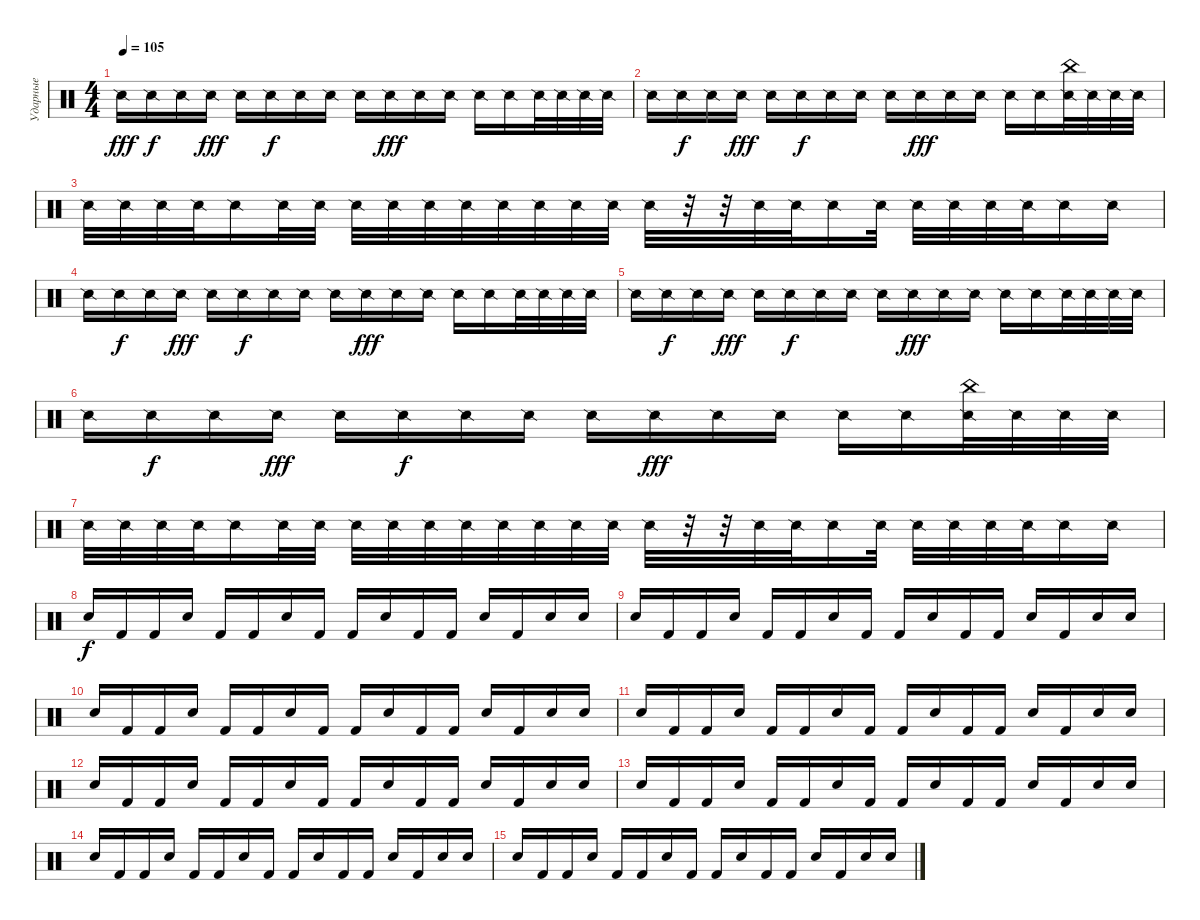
\track ("Ударные" "Ударные") {instrument percussion}
\staff {score}
\articulation defaults
\ts (4 4)
\tempo 105
\clef neutral
\ks c "Snare (side stick) 2".16{dy fff} "Snare (side stick) 2".16{dy f} "Snare (side stick) 2".16 "Snare (side stick) 2".16{dy fff} "Snare (side stick) 2".16 "Snare (side stick) 2".16{dy f} "Snare (side stick) 2".16 "Snare (side stick) 2".16 "Snare (side stick) 2".16 "Snare (side stick) 2".16{dy fff} "Snare (side stick) 2".16 "Snare (side stick) 2".16 "Snare (side stick) 2".16 "Snare (side stick) 2".16 "Snare (side stick) 2".32 "Snare (side stick) 2".32 "Snare (side stick) 2".32 "Snare (side stick) 2".32
|
"Snare (side stick) 2".16 "Snare (side stick) 2".16{dy f} "Snare (side stick) 2".16 "Snare (side stick) 2".16{dy fff} "Snare (side stick) 2".16 "Snare (side stick) 2".16{dy f} "Snare (side stick) 2".16 "Snare (side stick) 2".16 "Snare (side stick) 2".16 "Snare (side stick) 2".16{dy fff} "Snare (side stick) 2".16 "Snare (side stick) 2".16 "Snare (side stick) 2".16 "Snare (side stick) 2".16 ("China (hit)" "Snare (side stick) 2").32 "Snare (side stick) 2".32 "Snare (side stick) 2".32 "Snare (side stick) 2".32 |
"Snare (side stick) 2".32 "Snare (side stick) 2".32 "Snare (side stick) 2".32 "Snare (side stick) 2".32 "Snare (side stick) 2".16 "Snare (side stick) 2".32 "Snare (side stick) 2".32 "Snare (side stick) 2".32 "Snare (side stick) 2".32 "Snare (side stick) 2".32 "Snare (side stick) 2".32 "Snare (side stick) 2".32 "Snare (side stick) 2".32 "Snare (side stick) 2".32 "Snare (side stick) 2".32 "Snare (side stick) 2".32 r.32 r.32 "Snare (side stick) 2".32 "Snare (side stick) 2".32 "Snare (side stick) 2".16 "Snare (side stick) 2".32 "Snare (side stick) 2".32 "Snare (side stick) 2".32 "Snare (side stick) 2".32 "Snare (side stick) 2".32 "Snare (side stick) 2".16 "Snare (side stick) 2".16 |
"Snare (side stick) 2".16 "Snare (side stick) 2".16{dy f} "Snare (side stick) 2".16 "Snare (side stick) 2".16{dy fff} "Snare (side stick) 2".16 "Snare (side stick) 2".16{dy f} "Snare (side stick) 2".16 "Snare (side stick) 2".16 "Snare (side stick) 2".16 "Snare (side stick) 2".16{dy fff} "Snare (side stick) 2".16 "Snare (side stick) 2".16 "Snare (side stick) 2".16 "Snare (side stick) 2".16 "Snare (side stick) 2".32 "Snare (side stick) 2".32 "Snare (side stick) 2".32 "Snare (side stick) 2".32 |
"Snare (side stick) 2".16 "Snare (side stick) 2".16{dy f} "Snare (side stick) 2".16 "Snare (side stick) 2".16{dy fff} "Snare (side stick) 2".16 "Snare (side stick) 2".16{dy f} "Snare (side stick) 2".16 "Snare (side stick) 2".16 "Snare (side stick) 2".16 "Snare (side stick) 2".16{dy fff} "Snare (side stick) 2".16 "Snare (side stick) 2".16 "Snare (side stick) 2".16 "Snare (side stick) 2".16 "Snare (side stick) 2".32 "Snare (side stick) 2".32 "Snare (side stick) 2".32 "Snare (side stick) 2".32 |
"Snare (side stick) 2".16 "Snare (side stick) 2".16{dy f} "Snare (side stick) 2".16 "Snare (side stick) 2".16{dy fff} "Snare (side stick) 2".16 "Snare (side stick) 2".16{dy f} "Snare (side stick) 2".16 "Snare (side stick) 2".16 "Snare (side stick) 2".16 "Snare (side stick) 2".16{dy fff} "Snare (side stick) 2".16 "Snare (side stick) 2".16 "Snare (side stick) 2".16 "Snare (side stick) 2".16 ("China (hit)" "Snare (side stick) 2").32 "Snare (side stick) 2".32 "Snare (side stick) 2".32 "Snare (side stick) 2".32 |
"Snare (side stick) 2".32 "Snare (side stick) 2".32 "Snare (side stick) 2".32 "Snare (side stick) 2".32 "Snare (side stick) 2".16 "Snare (side stick) 2".32 "Snare (side stick) 2".32 "Snare (side stick) 2".32 "Snare (side stick) 2".32 "Snare (side stick) 2".32 "Snare (side stick) 2".32 "Snare (side stick) 2".32 "Snare (side stick) 2".32 "Snare (side stick) 2".32 "Snare (side stick) 2".32 "Snare (side stick) 2".32 r.32 r.32 "Snare (side stick) 2".32 "Snare (side stick) 2".32 "Snare (side stick) 2".16 "Snare (side stick) 2".32 "Snare (side stick) 2".32 "Snare (side stick) 2".32 "Snare (side stick) 2".32 "Snare (side stick) 2".32 "Snare (side stick) 2".16 "Snare (side stick) 2".16 |
"Electric Snare (hit)".16{dy f} "Kick (hit) 2".16 "Kick (hit) 2".16 "Electric Snare (hit)".16 "Kick (hit) 2".16 "Kick (hit) 2".16 "Electric Snare (hit)".16 "Kick (hit) 2".16 "Kick (hit) 2".16 "Electric Snare (hit)".16 "Kick (hit) 2".16 "Kick (hit) 2".16 "Electric Snare (hit)".16 "Kick (hit) 2".16 "Electric Snare (hit)".16 "Electric Snare (hit)".16 |
"Electric Snare (hit)".16 "Kick (hit) 2".16 "Kick (hit) 2".16 "Electric Snare (hit)".16 "Kick (hit) 2".16 "Kick (hit) 2".16 "Electric Snare (hit)".16 "Kick (hit) 2".16 "Kick (hit) 2".16 "Electric Snare (hit)".16 "Kick (hit) 2".16 "Kick (hit) 2".16 "Electric Snare (hit)".16 "Kick (hit) 2".16 "Electric Snare (hit)".16 "Electric Snare (hit)".16 |
"Electric Snare (hit)".16 "Kick (hit) 2".16 "Kick (hit) 2".16 "Electric Snare (hit)".16 "Kick (hit) 2".16 "Kick (hit) 2".16 "Electric Snare (hit)".16 "Kick (hit) 2".16 "Kick (hit) 2".16 "Electric Snare (hit)".16 "Kick (hit) 2".16 "Kick (hit) 2".16 "Electric Snare (hit)".16 "Kick (hit) 2".16 "Electric Snare (hit)".16 "Electric Snare (hit)".16 |
"Electric Snare (hit)".16 "Kick (hit) 2".16 "Kick (hit) 2".16 "Electric Snare (hit)".16 "Kick (hit) 2".16 "Kick (hit) 2".16 "Electric Snare (hit)".16 "Kick (hit) 2".16 "Kick (hit) 2".16 "Electric Snare (hit)".16 "Kick (hit) 2".16 "Kick (hit) 2".16 "Electric Snare (hit)".16 "Kick (hit) 2".16 "Electric Snare (hit)".16 "Electric Snare (hit)".16 |
"Electric Snare (hit)".16 "Kick (hit) 2".16 "Kick (hit) 2".16 "Electric Snare (hit)".16 "Kick (hit) 2".16 "Kick (hit) 2".16 "Electric Snare (hit)".16 "Kick (hit) 2".16 "Kick (hit) 2".16 "Electric Snare (hit)".16 "Kick (hit) 2".16 "Kick (hit) 2".16 "Electric Snare (hit)".16 "Kick (hit) 2".16 "Electric Snare (hit)".16 "Electric Snare (hit)".16 |
"Electric Snare (hit)".16 "Kick (hit) 2".16 "Kick (hit) 2".16 "Electric Snare (hit)".16 "Kick (hit) 2".16 "Kick (hit) 2".16 "Electric Snare (hit)".16 "Kick (hit) 2".16 "Kick (hit) 2".16 "Electric Snare (hit)".16 "Kick (hit) 2".16 "Kick (hit) 2".16 "Electric Snare (hit)".16 "Kick (hit) 2".16 "Electric Snare (hit)".16 "Electric Snare (hit)".16 |
"Electric Snare (hit)".16 "Kick (hit) 2".16 "Kick (hit) 2".16 "Electric Snare (hit)".16 "Kick (hit) 2".16 "Kick (hit) 2".16 "Electric Snare (hit)".16 "Kick (hit) 2".16 "Kick (hit) 2".16 "Electric Snare (hit)".16 "Kick (hit) 2".16 "Kick (hit) 2".16 "Electric Snare (hit)".16 "Kick (hit) 2".16 "Electric Snare (hit)".16 "Electric Snare (hit)".16 |
"Electric Snare (hit)".16 "Kick (hit) 2".16 "Kick (hit) 2".16 "Electric Snare (hit)".16 "Kick (hit) 2".16 "Kick (hit) 2".16 "Electric Snare (hit)".16 "Kick (hit) 2".16 "Kick (hit) 2".16 "Electric Snare (hit)".16 "Kick (hit) 2".16 "Kick (hit) 2".16 "Electric Snare (hit)".16 "Kick (hit) 2".16 "Electric Snare (hit)".16 "Electric Snare (hit)".16
